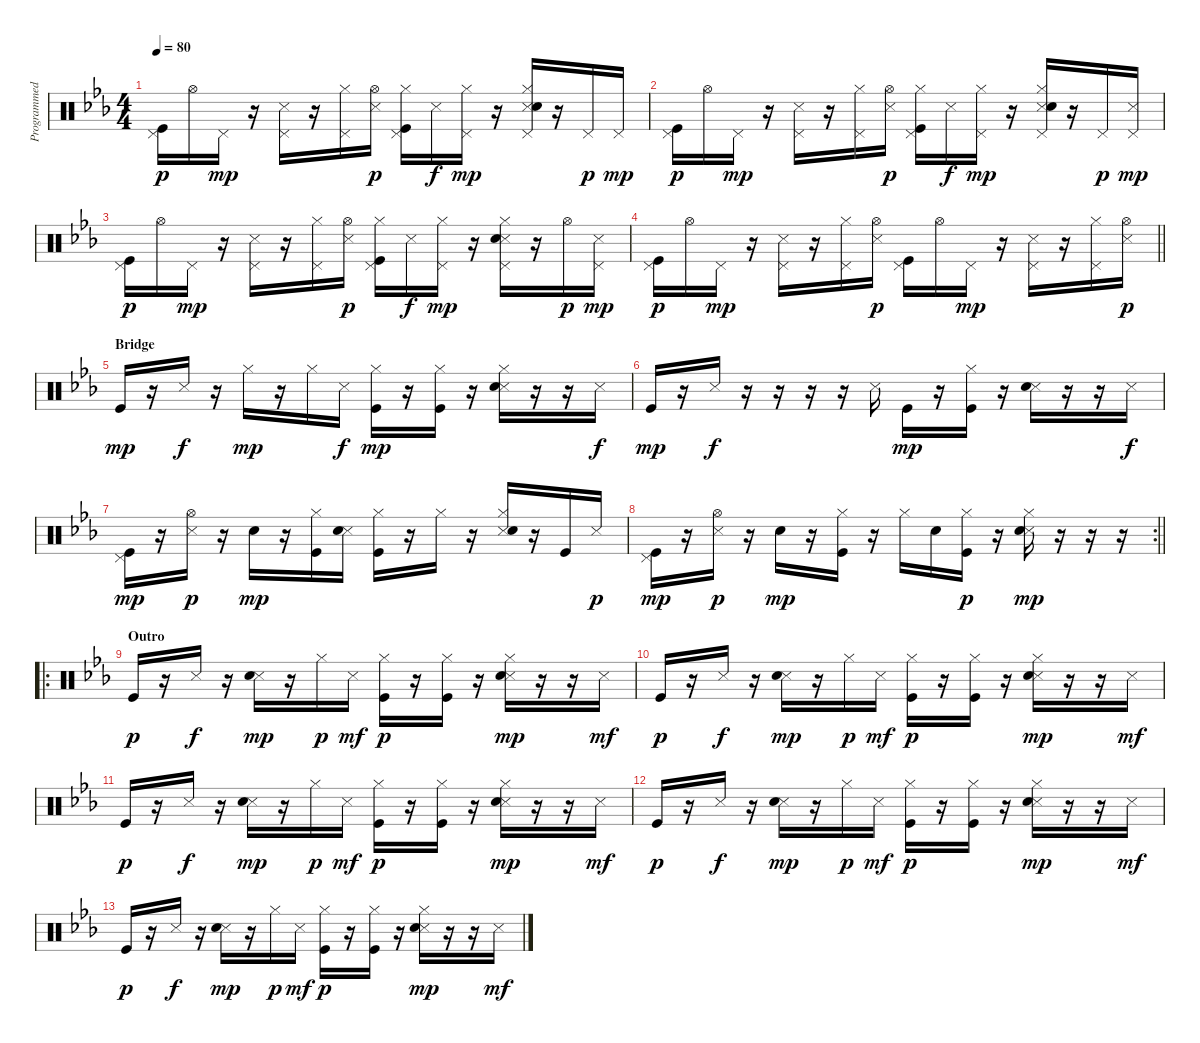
\track ("Programmed Drum" "Programmed") {instrument percussion}
\staff {score}
\articulation defaults
\ts (4 4)
\tempo 80
\clef neutral
\ks eb
("Pedal Hi-Hat (hit)" "Kick (hit)").16{dy p} "Hi-Hat (open)".16 "Pedal Hi-Hat (hit)".16{dy mp} r.16 ("Snare (side stick) 3" "Pedal Hi-Hat (hit)").16 r.16 ("Hi-Hat (closed)" "Pedal Hi-Hat (hit)").16 ("Snare (side stick) 3" "Hi-Hat (open)").16{dy p} ("Hi-Hat (closed)" "Pedal Hi-Hat (hit)" "Kick (hit)").16 "Snare (side stick) 3".16{dy f} ("Hi-Hat (closed)" "Pedal Hi-Hat (hit)").16{dy mp} r.16 ("Hi-Hat (closed)" "Snare (side stick) 3" "Snare (hit) 2" "Pedal Hi-Hat (hit)").16 r.16 "Pedal Hi-Hat (hit)".16{dy p} "Pedal Hi-Hat (hit)".16{dy mp} |
("Pedal Hi-Hat (hit)" "Kick (hit)").16{dy p} "Hi-Hat (open)".16 "Pedal Hi-Hat (hit)".16{dy mp} r.16 ("Snare (side stick) 3" "Pedal Hi-Hat (hit)").16 r.16 ("Hi-Hat (closed)" "Pedal Hi-Hat (hit)").16 ("Snare (side stick) 3" "Hi-Hat (open)").16{dy p} ("Hi-Hat (closed)" "Pedal Hi-Hat (hit)" "Kick (hit)").16 "Snare (side stick) 3".16{dy f} ("Hi-Hat (closed)" "Pedal Hi-Hat (hit)").16{dy mp} r.16 ("Hi-Hat (closed)" "Snare (side stick) 3" "Snare (hit) 2" "Pedal Hi-Hat (hit)").16 r.16 "Pedal Hi-Hat (hit)".16{dy p} ("Snare (side stick) 3" "Pedal Hi-Hat (hit)").16{dy mp} |
("Pedal Hi-Hat (hit)" "Kick (hit)").16{dy p} "Hi-Hat (open)".16 "Pedal Hi-Hat (hit)".16{dy mp} r.16 ("Snare (side stick) 3" "Pedal Hi-Hat (hit)").16 r.16 ("Hi-Hat (closed)" "Pedal Hi-Hat (hit)").16 ("Snare (side stick) 3" "Hi-Hat (open)").16{dy p} ("Hi-Hat (closed)" "Pedal Hi-Hat (hit)" "Kick (hit)").16 "Snare (side stick) 3".16{dy f} ("Hi-Hat (closed)" "Pedal Hi-Hat (hit)").16{dy mp} r.16 ("Hi-Hat (closed)" "Snare (side stick) 3" "Snare (hit) 2" "Pedal Hi-Hat (hit)").16 r.16 "Hi-Hat (open)".16{dy p} ("Snare (side stick) 3" "Pedal Hi-Hat (hit)").16{dy mp} |
\barLineRight lightlight
("Pedal Hi-Hat (hit)" "Kick (hit)").16{dy p} "Hi-Hat (open)".16 "Pedal Hi-Hat (hit)".16{dy mp} r.16 ("Snare (side stick) 3" "Pedal Hi-Hat (hit)").16 r.16 ("Hi-Hat (closed)" "Pedal Hi-Hat (hit)").16 ("Snare (side stick) 3" "Hi-Hat (open)").16{dy p} ("Pedal Hi-Hat (hit)" "Kick (hit)").16 "Hi-Hat (open)".16 "Pedal Hi-Hat (hit)".16{dy mp} r.16 ("Snare (side stick) 3" "Pedal Hi-Hat (hit)").16 r.16 ("Hi-Hat (closed)" "Pedal Hi-Hat (hit)").16 ("Snare (side stick) 3" "Hi-Hat (open)").16{dy p} |
\section ("" "Bridge")
"Kick (hit)".16{dy mp} r.16 "Snare (side stick) 3".16{dy f} r.16 "Hi-Hat (closed)".16{dy mp} r.16 "Hi-Hat (closed)".16 "Snare (side stick) 3".16{dy f} ("Hi-Hat (closed)" "Kick (hit)").16{dy mp} r.16 ("Hi-Hat (closed)" "Kick (hit)").16 r.16 ("Hi-Hat (closed)" "Snare (side stick) 3" "Snare (hit) 2").16 r.16 r.16 "Snare (side stick) 3".16{dy f} |
"Kick (hit)".16{dy mp} r.16 "Snare (side stick) 3".16{dy f} r.16 r.16 r.16 r.16 "Snare (side stick) 3".16 "Kick (hit)".16{dy mp} r.16 ("Hi-Hat (closed)" "Kick (hit)").16 r.16 ("Snare (side stick) 3" "Snare (hit) 2").16 r.16 r.16 "Snare (side stick) 3".16{dy f} |
("Kick (hit)" "Pedal Hi-Hat (hit)").16{dy mp} r.16 ("Snare (side stick) 3" "Hi-Hat (open)").16{dy p} r.16 "Snare (hit) 2".16{dy mp} r.16 ("Hi-Hat (closed)" "Kick (hit)").16 ("Snare (side stick) 3" "Snare (hit) 2").16 ("Hi-Hat (closed)" "Kick (hit)").16 r.16 "Hi-Hat (closed)".16 r.16 ("Hi-Hat (closed)" "Snare (side stick) 3" "Snare (hit) 2").16 r.16 "Kick (hit)".16 "Snare (side stick) 3".16{dy p} |
\rc 2
\barLineRight lightlight
("Kick (hit)" "Pedal Hi-Hat (hit)").16{dy mp} r.16 ("Snare (side stick) 3" "Hi-Hat (open)").16{dy p} r.16 "Snare (hit) 2".16{dy mp} r.16 ("Hi-Hat (closed)" "Kick (hit)").16 r.16 "Hi-Hat (closed)".16 "Snare (hit) 2".16 ("Hi-Hat (closed)" "Kick (hit)").16{dy p} r.16 ("Hi-Hat (closed)" "Snare (side stick) 3" "Snare (hit) 2").16{dy mp} r.16 r.16 r.16 |
\ro
\section ("" "Outro")
"Kick (hit)".16{dy p} r.16 "Snare (side stick) 3".16{dy f} r.16 ("Snare (side stick) 3" "Snare (hit) 2").16{dy mp} r.16 "Hi-Hat (closed)".16{dy p} "Snare (side stick) 3".16{dy mf} ("Hi-Hat (closed)" "Kick (hit)").16{dy p} r.16 ("Hi-Hat (closed)" "Kick (hit)").16 r.16 ("Hi-Hat (closed)" "Snare (side stick) 3" "Snare (hit) 2").16{dy mp} r.16 r.16 "Snare (side stick) 3".16{dy mf} |
"Kick (hit)".16{dy p} r.16 "Snare (side stick) 3".16{dy f} r.16 ("Snare (side stick) 3" "Snare (hit) 2").16{dy mp} r.16 "Hi-Hat (closed)".16{dy p} "Snare (side stick) 3".16{dy mf} ("Hi-Hat (closed)" "Kick (hit)").16{dy p} r.16 ("Hi-Hat (closed)" "Kick (hit)").16 r.16 ("Hi-Hat (closed)" "Snare (side stick) 3" "Snare (hit) 2").16{dy mp} r.16 r.16 "Snare (side stick) 3".16{dy mf} |
"Kick (hit)".16{dy p} r.16 "Snare (side stick) 3".16{dy f} r.16 ("Snare (side stick) 3" "Snare (hit) 2").16{dy mp} r.16 "Hi-Hat (closed)".16{dy p} "Snare (side stick) 3".16{dy mf} ("Hi-Hat (closed)" "Kick (hit)").16{dy p} r.16 ("Hi-Hat (closed)" "Kick (hit)").16 r.16 ("Hi-Hat (closed)" "Snare (side stick) 3" "Snare (hit) 2").16{dy mp} r.16 r.16 "Snare (side stick) 3".16{dy mf} |
"Kick (hit)".16{dy p} r.16 "Snare (side stick) 3".16{dy f} r.16 ("Snare (side stick) 3" "Snare (hit) 2").16{dy mp} r.16 "Hi-Hat (closed)".16{dy p} "Snare (side stick) 3".16{dy mf} ("Hi-Hat (closed)" "Kick (hit)").16{dy p} r.16 ("Hi-Hat (closed)" "Kick (hit)").16 r.16 ("Hi-Hat (closed)" "Snare (side stick) 3" "Snare (hit) 2").16{dy mp} r.16 r.16 "Snare (side stick) 3".16{dy mf} |
"Kick (hit)".16{dy p} r.16 "Snare (side stick) 3".16{dy f} r.16 ("Snare (side stick) 3" "Snare (hit) 2").16{dy mp} r.16 "Hi-Hat (closed)".16{dy p} "Snare (side stick) 3".16{dy mf} ("Hi-Hat (closed)" "Kick (hit)").16{dy p} r.16 ("Hi-Hat (closed)" "Kick (hit)").16 r.16 ("Hi-Hat (closed)" "Snare (side stick) 3" "Snare (hit) 2").16{dy mp} r.16 r.16 "Snare (side stick) 3".16{dy mf}
